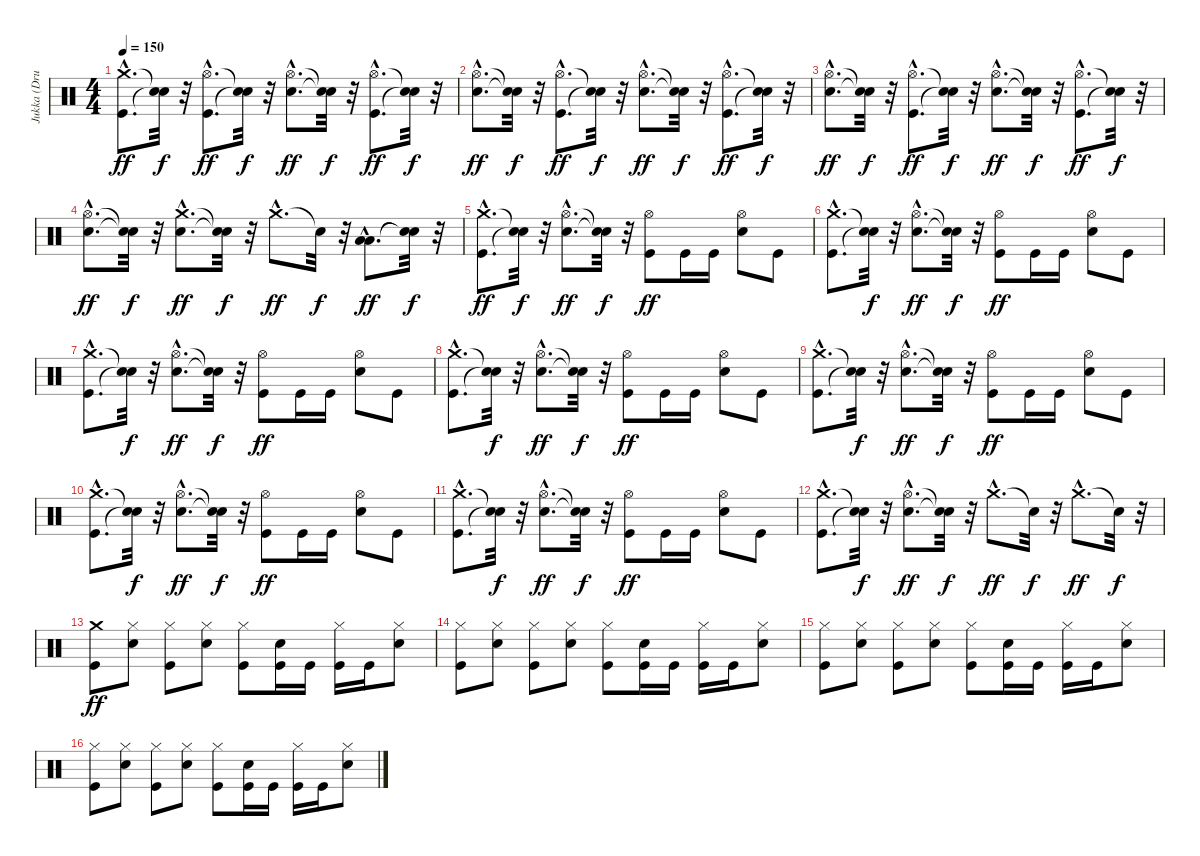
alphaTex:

\track ("Jukka (Drums)" "Jukka (Dru") {instrument percussion}
\staff {score}
\articulation defaults
\ts (4 4)
\tempo 150
\clef neutral
\ks c
("Kick (hit)"{hac} "Crash medium (hit)"{hac}).8{d dy ff} ("Snare (hit)"{t} "Snare (hit)"{t}).32{dy f} r.32 ("Kick (hit)"{hac} "Hi-Hat (open)"{hac}).8{d dy ff} ("Snare (hit)"{t} "Snare (hit)"{t}).32{dy f} r.32 ("Electric Snare (hit)"{hac} "Hi-Hat (open)"{hac}).8{d dy ff} ("Snare (hit)"{t} "Snare (hit)"{t}).32{dy f} r.32 ("Kick (hit)"{hac} "Hi-Hat (open)"{hac}).8{d dy ff} ("Snare (hit)"{t} "Snare (hit)"{t}).32{dy f} r.32 |
("Electric Snare (hit)"{hac} "Hi-Hat (open)"{hac}).8{d dy ff} ("Snare (hit)"{t} "Snare (hit)"{t}).32{dy f} r.32 ("Kick (hit)"{hac} "Hi-Hat (open)"{hac}).8{d dy ff} ("Snare (hit)"{t} "Snare (hit)"{t}).32{dy f} r.32 ("Electric Snare (hit)"{hac} "Hi-Hat (open)"{hac}).8{d dy ff} ("Snare (hit)"{t} "Snare (hit)"{t}).32{dy f} r.32 ("Kick (hit)"{hac} "Hi-Hat (open)"{hac}).8{d dy ff} ("Snare (hit)"{t} "Snare (hit)"{t}).32{dy f} r.32 |
("Electric Snare (hit)"{hac} "Hi-Hat (open)"{hac}).8{d dy ff} ("Snare (hit)"{t} "Snare (hit)"{t}).32{dy f} r.32 ("Kick (hit)"{hac} "Hi-Hat (open)"{hac}).8{d dy ff} ("Snare (hit)"{t} "Snare (hit)"{t}).32{dy f} r.32 ("Electric Snare (hit)"{hac} "Hi-Hat (open)"{hac}).8{d dy ff} ("Snare (hit)"{t} "Snare (hit)"{t}).32{dy f} r.32 ("Kick (hit)"{hac} "Hi-Hat (open)"{hac}).8{d dy ff} ("Snare (hit)"{t} "Snare (hit)"{t}).32{dy f} r.32 |
("Electric Snare (hit)"{hac} "Hi-Hat (open)"{hac}).8{d dy ff} ("Snare (hit)"{t} "Snare (hit)"{t}).32{dy f} r.32 ("Electric Snare (hit)"{hac} "Crash medium (hit)"{hac}).8{d dy ff} ("Snare (hit)"{t} "Snare (hit)"{t}).32{dy f} r.32 "Crash medium (hit)"{hac}.8{d dy ff} "Snare (hit)"{t}.32{dy f} r.32 ("Low Floor Tom (hit)"{hac} "Low Tom (hit)"{hac}).8{d dy ff} ("Snare (hit)"{t} "Snare (hit)"{t}).32{dy f} r.32 |
("Kick (hit)"{hac} "Crash medium (hit)"{hac}).8{d dy ff} ("Snare (hit)"{t} "Snare (hit)"{t}).32{dy f} r.32 ("Electric Snare (hit)"{hac} "Hi-Hat (open)"{hac}).8{d dy ff} ("Snare (hit)"{t} "Snare (hit)"{t}).32{dy f} r.32 ("Kick (hit)" "Hi-Hat (open)").8{dy ff} "Kick (hit)".16 "Kick (hit)".16 ("Electric Snare (hit)" "Hi-Hat (open)").8 "Kick (hit)".8 |
("Kick (hit)"{hac} "Crash medium (hit)"{hac}).8{d} ("Snare (hit)"{t} "Snare (hit)"{t}).32{dy f} r.32 ("Electric Snare (hit)"{hac} "Hi-Hat (open)"{hac}).8{d dy ff} ("Snare (hit)"{t} "Snare (hit)"{t}).32{dy f} r.32 ("Kick (hit)" "Hi-Hat (open)").8{dy ff} "Kick (hit)".16 "Kick (hit)".16 ("Electric Snare (hit)" "Hi-Hat (open)").8 "Kick (hit)".8 |
("Kick (hit)"{hac} "Crash medium (hit)"{hac}).8{d} ("Snare (hit)"{t} "Snare (hit)"{t}).32{dy f} r.32 ("Electric Snare (hit)"{hac} "Hi-Hat (open)"{hac}).8{d dy ff} ("Snare (hit)"{t} "Snare (hit)"{t}).32{dy f} r.32 ("Kick (hit)" "Hi-Hat (open)").8{dy ff} "Kick (hit)".16 "Kick (hit)".16 ("Electric Snare (hit)" "Hi-Hat (open)").8 "Kick (hit)".8 |
("Kick (hit)"{hac} "Crash medium (hit)"{hac}).8{d} ("Snare (hit)"{t} "Snare (hit)"{t}).32{dy f} r.32 ("Electric Snare (hit)"{hac} "Hi-Hat (open)"{hac}).8{d dy ff} ("Snare (hit)"{t} "Snare (hit)"{t}).32{dy f} r.32 ("Kick (hit)" "Hi-Hat (open)").8{dy ff} "Kick (hit)".16 "Kick (hit)".16 ("Electric Snare (hit)" "Hi-Hat (open)").8 "Kick (hit)".8 |
("Kick (hit)"{hac} "Crash medium (hit)"{hac}).8{d} ("Snare (hit)"{t} "Snare (hit)"{t}).32{dy f} r.32 ("Electric Snare (hit)"{hac} "Hi-Hat (open)"{hac}).8{d dy ff} ("Snare (hit)"{t} "Snare (hit)"{t}).32{dy f} r.32 ("Kick (hit)" "Hi-Hat (open)").8{dy ff} "Kick (hit)".16 "Kick (hit)".16 ("Electric Snare (hit)" "Hi-Hat (open)").8 "Kick (hit)".8 |
("Kick (hit)"{hac} "Crash medium (hit)"{hac}).8{d} ("Snare (hit)"{t} "Snare (hit)"{t}).32{dy f} r.32 ("Electric Snare (hit)"{hac} "Hi-Hat (open)"{hac}).8{d dy ff} ("Snare (hit)"{t} "Snare (hit)"{t}).32{dy f} r.32 ("Kick (hit)" "Hi-Hat (open)").8{dy ff} "Kick (hit)".16 "Kick (hit)".16 ("Electric Snare (hit)" "Hi-Hat (open)").8 "Kick (hit)".8 |
("Kick (hit)"{hac} "Crash medium (hit)"{hac}).8{d} ("Snare (hit)"{t} "Snare (hit)"{t}).32{dy f} r.32 ("Electric Snare (hit)"{hac} "Hi-Hat (open)"{hac}).8{d dy ff} ("Snare (hit)"{t} "Snare (hit)"{t}).32{dy f} r.32 ("Kick (hit)" "Hi-Hat (open)").8{dy ff} "Kick (hit)".16 "Kick (hit)".16 ("Electric Snare (hit)" "Hi-Hat (open)").8 "Kick (hit)".8 |
("Kick (hit)"{hac} "Crash medium (hit)"{hac}).8{d} ("Snare (hit)"{t} "Snare (hit)"{t}).32{dy f} r.32 ("Electric Snare (hit)"{hac} "Hi-Hat (open)"{hac}).8{d dy ff} ("Snare (hit)"{t} "Snare (hit)"{t}).32{dy f} r.32 "Crash medium (hit)"{hac}.8{d dy ff} "Snare (hit)"{t}.32{dy f} r.32 "Crash medium (hit)"{hac}.8{d dy ff} "Snare (hit)"{t}.32{dy f} r.32 |
("Kick (hit)" "Crash medium (hit)").8{dy ff} ("Electric Snare (hit)" "Hi-Hat (closed)").8 ("Kick (hit)" "Hi-Hat (closed)").8 ("Electric Snare (hit)" "Hi-Hat (closed)").8 ("Kick (hit)" "Hi-Hat (closed)").8 ("Kick (hit)" "Electric Snare (hit)").16 "Kick (hit)".16 ("Kick (hit)" "Hi-Hat (closed)").16 "Kick (hit)".16 ("Electric Snare (hit)" "Hi-Hat (closed)").8 |
("Kick (hit)" "Hi-Hat (closed)").8 ("Electric Snare (hit)" "Hi-Hat (closed)").8 ("Kick (hit)" "Hi-Hat (closed)").8 ("Electric Snare (hit)" "Hi-Hat (closed)").8 ("Kick (hit)" "Hi-Hat (closed)").8 ("Kick (hit)" "Electric Snare (hit)").16 "Kick (hit)".16 ("Kick (hit)" "Hi-Hat (closed)").16 "Kick (hit)".16 ("Electric Snare (hit)" "Hi-Hat (closed)").8 |
("Kick (hit)" "Hi-Hat (closed)").8 ("Electric Snare (hit)" "Hi-Hat (closed)").8 ("Kick (hit)" "Hi-Hat (closed)").8 ("Electric Snare (hit)" "Hi-Hat (closed)").8 ("Kick (hit)" "Hi-Hat (closed)").8 ("Kick (hit)" "Electric Snare (hit)").16 "Kick (hit)".16 ("Kick (hit)" "Hi-Hat (closed)").16 "Kick (hit)".16 ("Electric Snare (hit)" "Hi-Hat (closed)").8 |
("Kick (hit)" "Hi-Hat (closed)").8 ("Electric Snare (hit)" "Hi-Hat (closed)").8 ("Kick (hit)" "Hi-Hat (closed)").8 ("Electric Snare (hit)" "Hi-Hat (closed)").8 ("Kick (hit)" "Hi-Hat (closed)").8 ("Kick (hit)" "Electric Snare (hit)").16 "Kick (hit)".16 ("Kick (hit)" "Hi-Hat (closed)").16 "Kick (hit)".16 ("Electric Snare (hit)" "Hi-Hat (closed)").8
